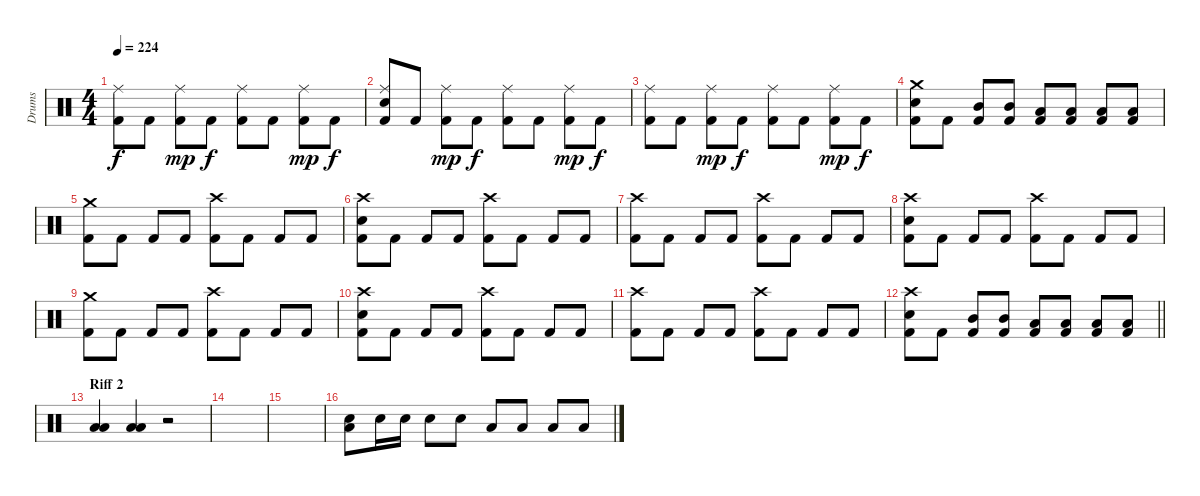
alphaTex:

\track ("Drums" "Drums") {instrument percussion}
\staff {score}
\articulation defaults
\ts (4 4)
\tempo 224
\clef neutral
\ks c
("Kick (hit) 2" "Ride (middle)").8{dy f} "Kick (hit) 2".8 ("Kick (hit) 2" "Ride (middle)").8{dy mp} "Kick (hit) 2".8{dy f} ("Kick (hit) 2" "Ride (middle)").8 "Kick (hit) 2".8 ("Kick (hit) 2" "Ride (middle)").8{dy mp} "Kick (hit) 2".8{dy f} |
("Kick (hit) 2" "Electric Snare (hit)" "Ride (middle)").8 "Kick (hit) 2".8 ("Kick (hit) 2" "Ride (middle)").8{dy mp} "Kick (hit) 2".8{dy f} ("Kick (hit) 2" "Ride (middle)").8 "Kick (hit) 2".8 ("Kick (hit) 2" "Ride (middle)").8{dy mp} "Kick (hit) 2".8{dy f} |
("Kick (hit) 2" "Ride (middle)").8 "Kick (hit) 2".8 ("Kick (hit) 2" "Ride (middle)").8{dy mp} "Kick (hit) 2".8{dy f} ("Kick (hit) 2" "Ride (middle)").8 "Kick (hit) 2".8 ("Kick (hit) 2" "Ride (middle)").8{dy mp} "Kick (hit) 2".8{dy f} |
("Kick (hit) 2" "Electric Snare (hit)" "Crash medium (hit)").8 "Kick (hit) 2".8 ("Kick (hit) 2" "Mid Tom (hit)").8 ("Kick (hit) 2" "Mid Tom (hit)").8 ("Kick (hit) 2" "Low Tom (hit)").8 ("Kick (hit) 2" "Low Tom (hit)").8 ("Kick (hit) 2" "Low Floor Tom (hit)").8 ("Kick (hit) 2" "Low Floor Tom (hit)").8 |
("Kick (hit) 2" "Crash medium (hit)").8 "Kick (hit) 2".8 "Kick (hit) 2".8 "Kick (hit) 2".8 ("Kick (hit) 2" "Crash high (hit)").8 "Kick (hit) 2".8 "Kick (hit) 2".8 "Kick (hit) 2".8 |
("Kick (hit) 2" "Electric Snare (hit)" "Crash high (hit)").8 "Kick (hit) 2".8 "Kick (hit) 2".8 "Kick (hit) 2".8 ("Kick (hit) 2" "Crash high (hit)").8 "Kick (hit) 2".8 "Kick (hit) 2".8 "Kick (hit) 2".8 |
("Kick (hit) 2" "Crash high (hit)").8 "Kick (hit) 2".8 "Kick (hit) 2".8 "Kick (hit) 2".8 ("Kick (hit) 2" "Crash high (hit)").8 "Kick (hit) 2".8 "Kick (hit) 2".8 "Kick (hit) 2".8 |
("Kick (hit) 2" "Electric Snare (hit)" "Crash high (hit)").8 "Kick (hit) 2".8 "Kick (hit) 2".8 "Kick (hit) 2".8 ("Kick (hit) 2" "Crash high (hit)").8 "Kick (hit) 2".8 "Kick (hit) 2".8 "Kick (hit) 2".8 |
("Kick (hit) 2" "Crash medium (hit)").8 "Kick (hit) 2".8 "Kick (hit) 2".8 "Kick (hit) 2".8 ("Kick (hit) 2" "Crash high (hit)").8 "Kick (hit) 2".8 "Kick (hit) 2".8 "Kick (hit) 2".8 |
("Kick (hit) 2" "Electric Snare (hit)" "Crash high (hit)").8 "Kick (hit) 2".8 "Kick (hit) 2".8 "Kick (hit) 2".8 ("Kick (hit) 2" "Crash high (hit)").8 "Kick (hit) 2".8 "Kick (hit) 2".8 "Kick (hit) 2".8 |
("Kick (hit) 2" "Crash high (hit)").8 "Kick (hit) 2".8 "Kick (hit) 2".8 "Kick (hit) 2".8 ("Kick (hit) 2" "Crash high (hit)").8 "Kick (hit) 2".8 "Kick (hit) 2".8 "Kick (hit) 2".8 |
\barLineRight lightlight
("Kick (hit) 2" "Electric Snare (hit)" "Crash high (hit)").8 "Kick (hit) 2".8 ("Kick (hit) 2" "Mid Tom (hit)").8 ("Kick (hit) 2" "Mid Tom (hit)").8 ("Kick (hit) 2" "Low Tom (hit)").8 ("Kick (hit) 2" "Low Tom (hit)").8 ("Kick (hit) 2" "Low Floor Tom (hit)").8 ("Kick (hit) 2" "Low Floor Tom (hit)").8 |
\section ("" "Riff 2")
("Low Tom (hit)" "Low Floor Tom (hit)").4 ("Low Tom (hit)" "Low Floor Tom (hit)").4 r.2 |
|
|
("Low Tom (hit)" "Electric Snare (hit)").8 "Electric Snare (hit)".16 "Electric Snare (hit)".16 "Electric Snare (hit)".8 "Electric Snare (hit)".8 "Low Tom (hit)".8 "Low Tom (hit)".8 "Low Tom (hit)".8 "Low Tom (hit)".8
